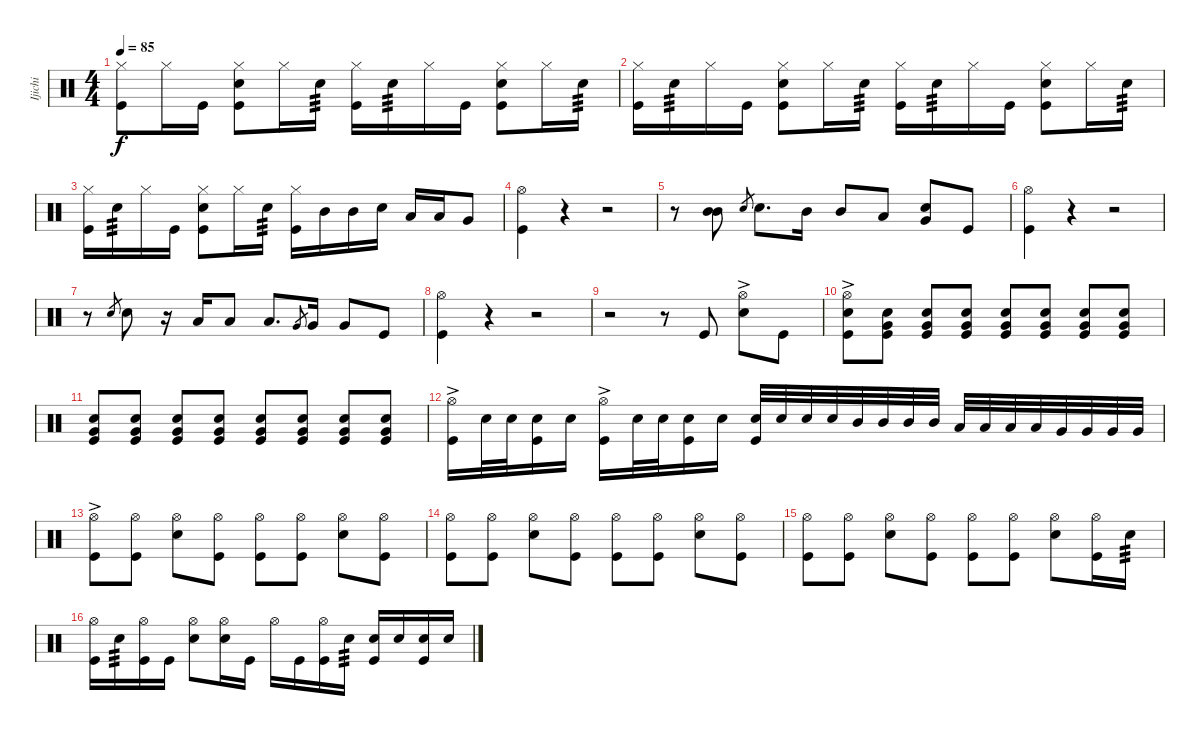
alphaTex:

\track ("Ijichi" "Ijichi") {instrument percussion}
\staff {score}
\articulation defaults
\ts (4 4)
\tempo 85
\clef neutral
\ks c
("Hi-Hat (closed)" "Kick (hit)").8{dy f} "Hi-Hat (closed)".16 "Kick (hit)".16 ("Hi-Hat (closed)" "Snare (hit) 2" "Kick (hit)").8 "Hi-Hat (closed)".16 "Snare (hit) 2".16{tp 3} ("Hi-Hat (closed)" "Kick (hit)").16 "Snare (hit) 2".16{tp 3} "Hi-Hat (closed)".16 "Kick (hit)".16 ("Hi-Hat (closed)" "Snare (hit) 2" "Kick (hit)").8 "Hi-Hat (closed)".16 "Snare (hit) 2".16{tp 3} |
("Hi-Hat (closed)" "Kick (hit)").16 "Snare (hit) 2".16{tp 3} "Hi-Hat (closed)".16 "Kick (hit)".16 ("Hi-Hat (closed)" "Snare (hit) 2" "Kick (hit)").8 "Hi-Hat (closed)".16 "Snare (hit) 2".16{tp 3} ("Hi-Hat (closed)" "Kick (hit)").16 "Snare (hit) 2".16{tp 3} "Hi-Hat (closed)".16 "Kick (hit)".16 ("Hi-Hat (closed)" "Snare (hit) 2" "Kick (hit)").8 "Hi-Hat (closed)".16 "Snare (hit) 2".16{tp 3} |
("Hi-Hat (closed)" "Kick (hit)").16 "Snare (hit) 2".16{tp 3} "Hi-Hat (closed)".16 "Kick (hit)".16 ("Hi-Hat (closed)" "Snare (hit) 2" "Kick (hit)").8 "Hi-Hat (closed)".16 "Snare (hit) 2".16{tp 3} ("Hi-Hat (closed)" "Kick (hit)").16 "Mid Tom (hit)".16 "Mid Tom (hit)".16 "Snare (hit) 2".16 "Low Tom (hit)".16 "Low Tom (hit)".16 "Very Low Tom (hit)".8 |
("Hi-Hat (open)" "Kick (hit)").4 r.4 r.2 |
r.8 ("Mid Tom (hit)" "Mid Tom (hit)").8 "Snare (hit) 2".8{gr} "Snare (hit) 2".8{d} "Mid Tom (hit)".16 "Mid Tom (hit)".8 "Low Tom (hit)".8 ("Snare (hit) 2" "Very Low Tom (hit)").8 "Kick (hit)".8 |
("Hi-Hat (open)" "Kick (hit)").4 r.4 r.2 |
r.8 "Snare (hit) 2".8{gr} "Snare (hit) 2".8 r.16 "Low Tom (hit)".16 "Low Tom (hit)".8 "Low Tom (hit)".8{d} "Very Low Tom (hit)".8{gr} "Very Low Tom (hit)".16 "Very Low Tom (hit)".8 "Kick (hit)".8 |
("Hi-Hat (open)" "Kick (hit)").4 r.4 r.2 |
r.2 r.8 "Kick (hit)".8 ("Hi-Hat (open)"{ac} "Snare (hit) 2").8 "Kick (hit)".8 |
("Hi-Hat (open)"{ac} "Snare (hit) 2" "Kick (hit)").8 ("Snare (hit) 2" "Very Low Tom (hit)" "Kick (hit)").8 ("Snare (hit) 2" "Very Low Tom (hit)" "Kick (hit)").8 ("Snare (hit) 2" "Very Low Tom (hit)" "Kick (hit)").8 ("Snare (hit) 2" "Very Low Tom (hit)" "Kick (hit)").8 ("Snare (hit) 2" "Very Low Tom (hit)" "Kick (hit)").8 ("Snare (hit) 2" "Very Low Tom (hit)" "Kick (hit)").8 ("Snare (hit) 2" "Very Low Tom (hit)" "Kick (hit)").8 |
("Snare (hit) 2" "Very Low Tom (hit)" "Kick (hit)").8 ("Snare (hit) 2" "Very Low Tom (hit)" "Kick (hit)").8 ("Snare (hit) 2" "Very Low Tom (hit)" "Kick (hit)").8 ("Snare (hit) 2" "Very Low Tom (hit)" "Kick (hit)").8 ("Snare (hit) 2" "Very Low Tom (hit)" "Kick (hit)").8 ("Snare (hit) 2" "Very Low Tom (hit)" "Kick (hit)").8 ("Snare (hit) 2" "Very Low Tom (hit)" "Kick (hit)").8 ("Snare (hit) 2" "Very Low Tom (hit)" "Kick (hit)").8 |
("Hi-Hat (open)"{ac} "Kick (hit)").16 "Snare (hit) 2".32 "Snare (hit) 2".32 ("Snare (hit) 2" "Kick (hit)").16 "Snare (hit) 2".16 ("Hi-Hat (open)"{ac} "Kick (hit)").16 "Snare (hit) 2".32 "Snare (hit) 2".32 ("Snare (hit) 2" "Kick (hit)").16 "Snare (hit) 2".16 ("Snare (hit) 2" "Kick (hit)").32 "Snare (hit) 2".32 "Snare (hit) 2".32 "Snare (hit) 2".32 "Mid Tom (hit)".32 "Mid Tom (hit)".32 "Mid Tom (hit)".32 "Mid Tom (hit)".32 "Low Tom (hit)".32 "Low Tom (hit)".32 "Low Tom (hit)".32 "Low Tom (hit)".32 "Very Low Tom (hit)".32 "Very Low Tom (hit)".32 "Very Low Tom (hit)".32 "Very Low Tom (hit)".32 |
("Hi-Hat (open)"{ac} "Kick (hit)").8 ("Hi-Hat (open)" "Kick (hit)").8 ("Hi-Hat (open)" "Snare (hit) 2").8 ("Hi-Hat (open)" "Kick (hit)").8 ("Hi-Hat (open)" "Kick (hit)").8 ("Hi-Hat (open)" "Kick (hit)").8 ("Hi-Hat (open)" "Snare (hit) 2").8 ("Hi-Hat (open)" "Kick (hit)").8 |
("Hi-Hat (open)" "Kick (hit)").8 ("Hi-Hat (open)" "Kick (hit)").8 ("Hi-Hat (open)" "Snare (hit) 2").8 ("Hi-Hat (open)" "Kick (hit)").8 ("Hi-Hat (open)" "Kick (hit)").8 ("Hi-Hat (open)" "Kick (hit)").8 ("Hi-Hat (open)" "Snare (hit) 2").8 ("Hi-Hat (open)" "Kick (hit)").8 |
("Hi-Hat (open)" "Kick (hit)").8 ("Hi-Hat (open)" "Kick (hit)").8 ("Hi-Hat (open)" "Snare (hit) 2").8 ("Hi-Hat (open)" "Kick (hit)").8 ("Hi-Hat (open)" "Kick (hit)").8 ("Hi-Hat (open)" "Kick (hit)").8 ("Hi-Hat (open)" "Snare (hit) 2").8 ("Hi-Hat (open)" "Kick (hit)").16 "Snare (hit) 2".16{tp 3} |
("Hi-Hat (open)" "Kick (hit)").16 "Snare (hit) 2".16{tp 3} ("Hi-Hat (open)" "Kick (hit)").16 "Kick (hit)".16 ("Hi-Hat (open)" "Snare (hit) 2").8 ("Hi-Hat (open)" "Snare (hit) 2").16 "Kick (hit)".16 "Hi-Hat (open)".16 "Kick (hit)".16 ("Hi-Hat (open)" "Kick (hit)").16 "Snare (hit) 2".16{tp 3} ("Snare (hit) 2" "Kick (hit)").16 "Snare (hit) 2".16 ("Snare (hit) 2" "Kick (hit)").16 "Snare (hit) 2".16
